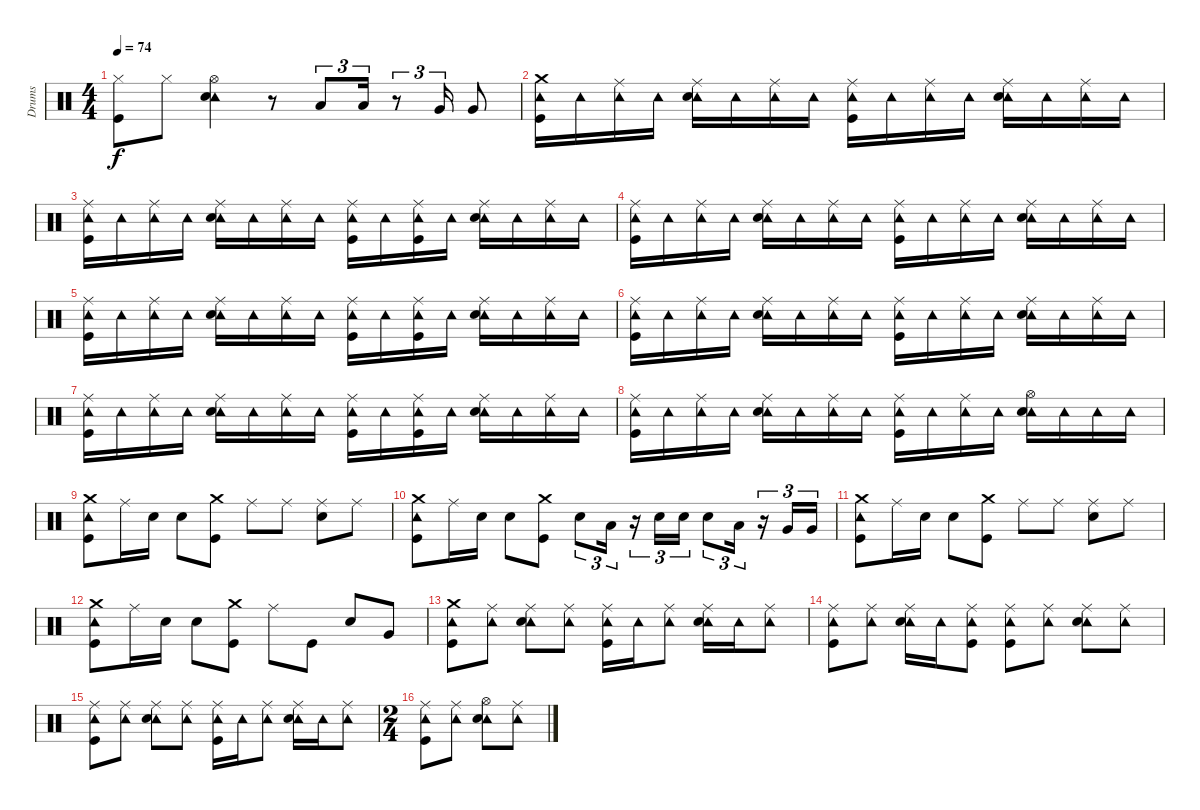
\track ("Drums" "Drums") {instrument percussion}
\staff {score}
\articulation defaults
\ts (4 4)
\tempo 74
\clef neutral
\ks c
("Hi-Hat (closed)" "Kick (hit)").8{dy f} "Hi-Hat (closed)".8 ("Tambourine (hit)" "Hi-Hat (open)" "Snare (hit) 2").4 r.8 "Low Tom (hit)".8{tu (3 2)} "Low Tom (hit)".16{tu (3 2)} r.8{tu (3 2)} "Very Low Tom (hit)".16{tu (3 2)} "Very Low Tom (hit)".8 |
("Tambourine (hit)" "Crash medium (hit)" "Kick (hit)").16 "Tambourine (hit)".16 ("Tambourine (hit)" "Ride (middle)").16 "Tambourine (hit)".16 ("Tambourine (hit)" "Ride (middle)" "Snare (hit) 2").16 "Tambourine (hit)".16 ("Tambourine (hit)" "Ride (middle)").16 "Tambourine (hit)".16 ("Tambourine (hit)" "Ride (middle)" "Kick (hit)").16 "Tambourine (hit)".16 ("Tambourine (hit)" "Ride (middle)").16 "Tambourine (hit)".16 ("Tambourine (hit)" "Ride (middle)" "Snare (hit) 2").16 "Tambourine (hit)".16 ("Tambourine (hit)" "Ride (middle)").16 "Tambourine (hit)".16 |
("Tambourine (hit)" "Ride (middle)" "Kick (hit)").16 "Tambourine (hit)".16 ("Tambourine (hit)" "Ride (middle)").16 "Tambourine (hit)".16 ("Tambourine (hit)" "Ride (middle)" "Snare (hit) 2").16 "Tambourine (hit)".16 ("Tambourine (hit)" "Ride (middle)").16 "Tambourine (hit)".16 ("Tambourine (hit)" "Ride (middle)" "Kick (hit)").16 "Tambourine (hit)".16 ("Tambourine (hit)" "Ride (middle)" "Kick (hit)").16 "Tambourine (hit)".16 ("Tambourine (hit)" "Ride (middle)" "Snare (hit) 2").16 "Tambourine (hit)".16 ("Tambourine (hit)" "Ride (middle)").16 "Tambourine (hit)".16 |
("Tambourine (hit)" "Ride (middle)" "Kick (hit)").16 "Tambourine (hit)".16 ("Tambourine (hit)" "Ride (middle)").16 "Tambourine (hit)".16 ("Tambourine (hit)" "Ride (middle)" "Snare (hit) 2").16 "Tambourine (hit)".16 ("Tambourine (hit)" "Ride (middle)").16 "Tambourine (hit)".16 ("Tambourine (hit)" "Ride (middle)" "Kick (hit)").16 "Tambourine (hit)".16 ("Tambourine (hit)" "Ride (middle)").16 "Tambourine (hit)".16 ("Tambourine (hit)" "Ride (middle)" "Snare (hit) 2").16 "Tambourine (hit)".16 ("Tambourine (hit)" "Ride (middle)").16 "Tambourine (hit)".16 |
("Tambourine (hit)" "Ride (middle)" "Kick (hit)").16 "Tambourine (hit)".16 ("Tambourine (hit)" "Ride (middle)").16 "Tambourine (hit)".16 ("Tambourine (hit)" "Ride (middle)" "Snare (hit) 2").16 "Tambourine (hit)".16 ("Tambourine (hit)" "Ride (middle)").16 "Tambourine (hit)".16 ("Tambourine (hit)" "Ride (middle)" "Kick (hit)").16 "Tambourine (hit)".16 ("Tambourine (hit)" "Ride (middle)" "Kick (hit)").16 "Tambourine (hit)".16 ("Tambourine (hit)" "Ride (middle)" "Snare (hit) 2").16 "Tambourine (hit)".16 ("Tambourine (hit)" "Ride (middle)").16 "Tambourine (hit)".16 |
("Tambourine (hit)" "Ride (middle)" "Kick (hit)").16 "Tambourine (hit)".16 ("Tambourine (hit)" "Ride (middle)").16 "Tambourine (hit)".16 ("Tambourine (hit)" "Ride (middle)" "Snare (hit) 2").16 "Tambourine (hit)".16 ("Tambourine (hit)" "Ride (middle)").16 "Tambourine (hit)".16 ("Tambourine (hit)" "Ride (middle)" "Kick (hit)").16 "Tambourine (hit)".16 ("Tambourine (hit)" "Ride (middle)").16 "Tambourine (hit)".16 ("Tambourine (hit)" "Ride (middle)" "Snare (hit) 2").16 "Tambourine (hit)".16 ("Tambourine (hit)" "Ride (middle)").16 "Tambourine (hit)".16 |
("Tambourine (hit)" "Ride (middle)" "Kick (hit)").16 "Tambourine (hit)".16 ("Tambourine (hit)" "Ride (middle)").16 "Tambourine (hit)".16 ("Tambourine (hit)" "Ride (middle)" "Snare (hit) 2").16 "Tambourine (hit)".16 ("Tambourine (hit)" "Ride (middle)").16 "Tambourine (hit)".16 ("Tambourine (hit)" "Ride (middle)" "Kick (hit)").16 "Tambourine (hit)".16 ("Tambourine (hit)" "Ride (middle)" "Kick (hit)").16 "Tambourine (hit)".16 ("Tambourine (hit)" "Ride (middle)" "Snare (hit) 2").16 "Tambourine (hit)".16 ("Tambourine (hit)" "Ride (middle)").16 "Tambourine (hit)".16 |
("Tambourine (hit)" "Ride (middle)" "Kick (hit)").16 "Tambourine (hit)".16 ("Tambourine (hit)" "Ride (middle)").16 "Tambourine (hit)".16 ("Tambourine (hit)" "Ride (middle)" "Snare (hit) 2").16 "Tambourine (hit)".16 ("Tambourine (hit)" "Ride (middle)").16 "Tambourine (hit)".16 ("Tambourine (hit)" "Ride (middle)" "Kick (hit)").16 "Tambourine (hit)".16 ("Tambourine (hit)" "Ride (middle)").16 "Tambourine (hit)".16 ("Tambourine (hit)" "Hi-Hat (open)" "Snare (hit) 2").16 "Tambourine (hit)".16 "Tambourine (hit)".16 "Tambourine (hit)".16 |
("Tambourine (hit)" "Crash medium (hit)" "Kick (hit)").8 "Ride (middle)".16 "Snare (hit) 2".16 "Snare (hit) 2".8 ("Crash medium (hit)" "Kick (hit)").8 "Ride (middle)".8 "Ride (middle)".8 ("Ride (middle)" "Snare (hit) 2").8 "Ride (middle)".8 |
("Tambourine (hit)" "Crash medium (hit)" "Kick (hit)").8 "Ride (middle)".16 "Snare (hit) 2".16 "Snare (hit) 2".8 ("Crash medium (hit)" "Kick (hit)").8 "Snare (hit) 2".8{tu (3 2)} "Low Tom (hit)".16{tu (3 2)} r.16{tu (3 2)} "Snare (hit) 2".16{tu (3 2)} "Snare (hit) 2".16{tu (3 2)} "Snare (hit) 2".8{tu (3 2)} "Low Tom (hit)".16{tu (3 2)} r.16{tu (3 2)} "Very Low Tom (hit)".16{tu (3 2)} "Very Low Tom (hit)".16{tu (3 2)} |
("Tambourine (hit)" "Crash medium (hit)" "Kick (hit)").8 "Ride (middle)".16 "Snare (hit) 2".16 "Snare (hit) 2".8 ("Crash medium (hit)" "Kick (hit)").8 "Ride (middle)".8 "Ride (middle)".8 ("Ride (middle)" "Snare (hit) 2").8 "Ride (middle)".8 |
("Tambourine (hit)" "Crash medium (hit)" "Kick (hit)").8 "Ride (middle)".16 "Snare (hit) 2".16 "Snare (hit) 2".8 ("Crash medium (hit)" "Kick (hit)").8 "Ride (middle)".8 "Kick (hit)".8 "Snare (hit) 2".8 "Very Low Tom (hit)".8 |
("Tambourine (hit)" "Crash medium (hit)" "Kick (hit)").8 ("Tambourine (hit)" "Ride (middle)").8 ("Tambourine (hit)" "Ride (middle)" "Snare (hit) 2").8 ("Tambourine (hit)" "Ride (middle)").8 ("Tambourine (hit)" "Ride (middle)" "Kick (hit)").16 "Tambourine (hit)".16 ("Tambourine (hit)" "Ride (middle)").8 ("Tambourine (hit)" "Ride (middle)" "Snare (hit) 2").16 "Tambourine (hit)".16 ("Tambourine (hit)" "Ride (middle)").8 |
("Tambourine (hit)" "Ride (middle)" "Kick (hit)").8 ("Tambourine (hit)" "Ride (middle)").8 ("Tambourine (hit)" "Ride (middle)" "Snare (hit) 2").16 "Tambourine (hit)".16 ("Tambourine (hit)" "Ride (middle)" "Kick (hit)").8 ("Tambourine (hit)" "Ride (middle)" "Kick (hit)").8 ("Tambourine (hit)" "Ride (middle)").8 ("Tambourine (hit)" "Ride (middle)" "Snare (hit) 2").8 ("Tambourine (hit)" "Ride (middle)").8 |
("Tambourine (hit)" "Ride (middle)" "Kick (hit)").8 ("Tambourine (hit)" "Ride (middle)").8 ("Tambourine (hit)" "Ride (middle)" "Snare (hit) 2").8 ("Tambourine (hit)" "Ride (middle)").8 ("Tambourine (hit)" "Ride (middle)" "Kick (hit)").16 "Tambourine (hit)".16 ("Tambourine (hit)" "Ride (middle)").8 ("Tambourine (hit)" "Ride (middle)" "Snare (hit) 2").16 "Tambourine (hit)".16 ("Tambourine (hit)" "Ride (middle)").8 |
\ts (2 4)
("Tambourine (hit)" "Ride (middle)" "Kick (hit)").8 ("Tambourine (hit)" "Ride (middle)").8 ("Tambourine (hit)" "Hi-Hat (open)" "Snare (hit) 2").8 ("Tambourine (hit)" "Ride (middle)").8
